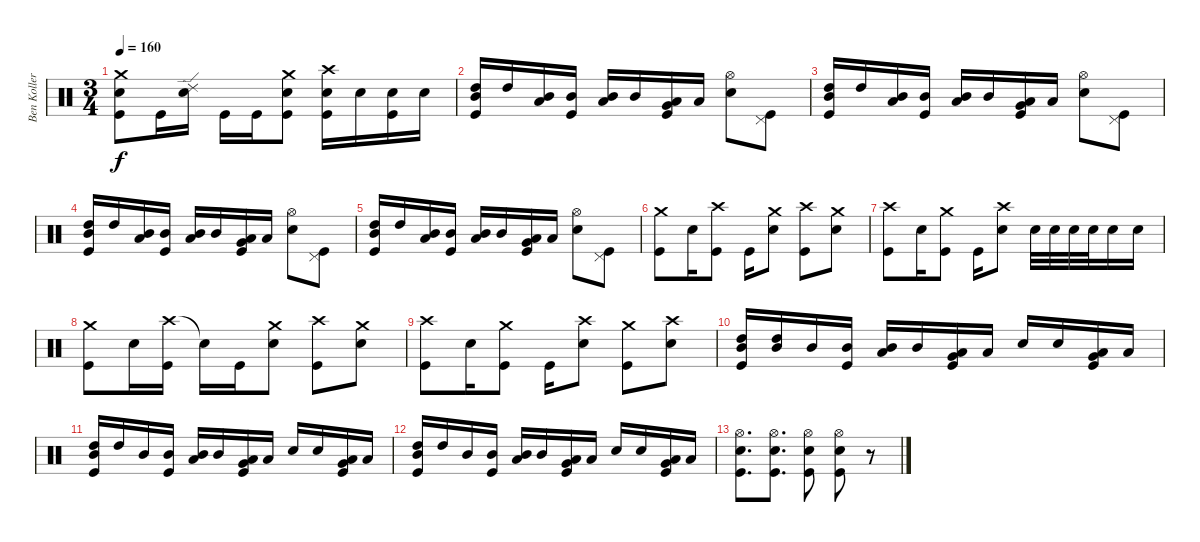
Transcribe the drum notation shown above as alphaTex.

\track ("Ben Koller" "Ben Koller") {instrument percussion}
\staff {score}
\articulation defaults
\ts (3 4)
\tempo 160
\clef neutral
\ks c
("Crash medium (hit)" "Electric Snare (hit)" "Kick (hit)").8{dy f} "Kick (hit)".16 ("Ride (edge) 2" "Electric Snare (hit)").16 "Kick (hit)".16 "Kick (hit)".16 ("Crash medium (hit)" "Electric Snare (hit)" "Kick (hit)").8 ("Crash high (hit)" "Electric Snare (hit)" "Kick (hit)").16 "Electric Snare (hit)".16 ("Electric Snare (hit)" "Kick (hit)").16 "Electric Snare (hit)".16 |
("High Tom (hit)" "Mid Tom (hit)" "Kick (hit)").16 "High Tom (hit)".16 ("Mid Tom (hit)" "Low Tom (hit)").16 ("Mid Tom (hit)" "Kick (hit)").16 ("Mid Tom (hit)" "Low Tom (hit)").16 "Mid Tom (hit)".16 ("Low Tom (hit)" "Very Low Tom (hit)" "Kick (hit)").16 "Low Tom (hit)".16 ("Hi-Hat (open)" "Electric Snare (hit)").8 ("Pedal Hi-Hat (hit)" "Kick (hit)").8 |
("High Tom (hit)" "Mid Tom (hit)" "Kick (hit)").16 "High Tom (hit)".16 ("Mid Tom (hit)" "Low Tom (hit)").16 ("Mid Tom (hit)" "Kick (hit)").16 ("Mid Tom (hit)" "Low Tom (hit)").16 "Mid Tom (hit)".16 ("Low Tom (hit)" "Very Low Tom (hit)" "Kick (hit)").16 "Low Tom (hit)".16 ("Hi-Hat (open)" "Electric Snare (hit)").8 ("Pedal Hi-Hat (hit)" "Kick (hit)").8 |
("High Tom (hit)" "Mid Tom (hit)" "Kick (hit)").16 "High Tom (hit)".16 ("Mid Tom (hit)" "Low Tom (hit)").16 ("Mid Tom (hit)" "Kick (hit)").16 ("Mid Tom (hit)" "Low Tom (hit)").16 "Mid Tom (hit)".16 ("Low Tom (hit)" "Very Low Tom (hit)" "Kick (hit)").16 "Low Tom (hit)".16 ("Hi-Hat (open)" "Electric Snare (hit)").8 ("Pedal Hi-Hat (hit)" "Kick (hit)").8 |
("High Tom (hit)" "Mid Tom (hit)" "Kick (hit)").16 "High Tom (hit)".16 ("Mid Tom (hit)" "Low Tom (hit)").16 ("Mid Tom (hit)" "Kick (hit)").16 ("Mid Tom (hit)" "Low Tom (hit)").16 "Mid Tom (hit)".16 ("Low Tom (hit)" "Very Low Tom (hit)" "Kick (hit)").16 "Low Tom (hit)".16 ("Hi-Hat (open)" "Electric Snare (hit)").8 ("Pedal Hi-Hat (hit)" "Kick (hit)").8 |
("Crash medium (hit)" "Kick (hit)").8 "Electric Snare (hit)".16 ("Crash high (hit)" "Kick (hit)").8 "Kick (hit)".16 ("Crash medium (hit)" "Electric Snare (hit)").8 ("Crash high (hit)" "Kick (hit)").8 ("Crash medium (hit)" "Electric Snare (hit)").8 |
("Crash high (hit)" "Kick (hit)").8 "Electric Snare (hit)".16 ("Crash medium (hit)" "Kick (hit)").8 "Kick (hit)".16 ("Crash high (hit)" "Electric Snare (hit)").8 "Electric Snare (hit)".32 "Electric Snare (hit)".32 "Electric Snare (hit)".32 "Electric Snare (hit)".32 "Electric Snare (hit)".16 "Electric Snare (hit)".16 |
("Crash medium (hit)" "Kick (hit)").8 "Electric Snare (hit)".16 ("Crash high (hit)" "Kick (hit)").16 "Snare (hit)"{t}.16 "Kick (hit)".16 ("Crash medium (hit)" "Electric Snare (hit)").8 ("Crash high (hit)" "Kick (hit)").8 ("Crash medium (hit)" "Electric Snare (hit)").8 |
("Crash high (hit)" "Kick (hit)").8 "Electric Snare (hit)".16 ("Crash medium (hit)" "Kick (hit)").8 "Kick (hit)".16 ("Crash high (hit)" "Electric Snare (hit)").8 ("Crash medium (hit)" "Kick (hit)").8 ("Crash high (hit)" "Electric Snare (hit)").8 |
("High Tom (hit)" "Mid Tom (hit)" "Kick (hit)").16 ("High Tom (hit)" "Mid Tom (hit)").16 "Mid Tom (hit)".16 ("Mid Tom (hit)" "Kick (hit)").16 ("Mid Tom (hit)" "Low Tom (hit)").16 "Mid Tom (hit)".16 ("Low Tom (hit)" "Very Low Tom (hit)" "Kick (hit)").16 "Low Tom (hit)".16 "Electric Snare (hit)".16 "Electric Snare (hit)".16 ("Low Tom (hit)" "Very Low Tom (hit)" "Kick (hit)").16 "Low Tom (hit)".16 |
("High Tom (hit)" "Mid Tom (hit)" "Kick (hit)").16 "High Tom (hit)".16 "Mid Tom (hit)".16 ("Mid Tom (hit)" "Kick (hit)").16 ("Mid Tom (hit)" "Low Tom (hit)").16 "Mid Tom (hit)".16 ("Low Tom (hit)" "Very Low Tom (hit)" "Kick (hit)").16 "Low Tom (hit)".16 "Electric Snare (hit)".16 "Electric Snare (hit)".16 ("Low Tom (hit)" "Very Low Tom (hit)" "Kick (hit)").16 "Low Tom (hit)".16 |
("High Tom (hit)" "Mid Tom (hit)" "Kick (hit)").16 "High Tom (hit)".16 "Mid Tom (hit)".16 ("Mid Tom (hit)" "Kick (hit)").16 ("Mid Tom (hit)" "Low Tom (hit)").16 "Mid Tom (hit)".16 ("Low Tom (hit)" "Very Low Tom (hit)" "Kick (hit)").16 "Low Tom (hit)".16 "Electric Snare (hit)".16 "Electric Snare (hit)".16 ("Low Tom (hit)" "Very Low Tom (hit)" "Kick (hit)").16 "Low Tom (hit)".16 |
("Hi-Hat (open)" "Electric Snare (hit)" "Kick (hit)").8{d} ("Hi-Hat (open)" "Electric Snare (hit)" "Kick (hit)").8{d} ("Hi-Hat (open)" "Electric Snare (hit)" "Kick (hit)").8 ("Hi-Hat (open)" "Electric Snare (hit)" "Kick (hit)").8 r.8
